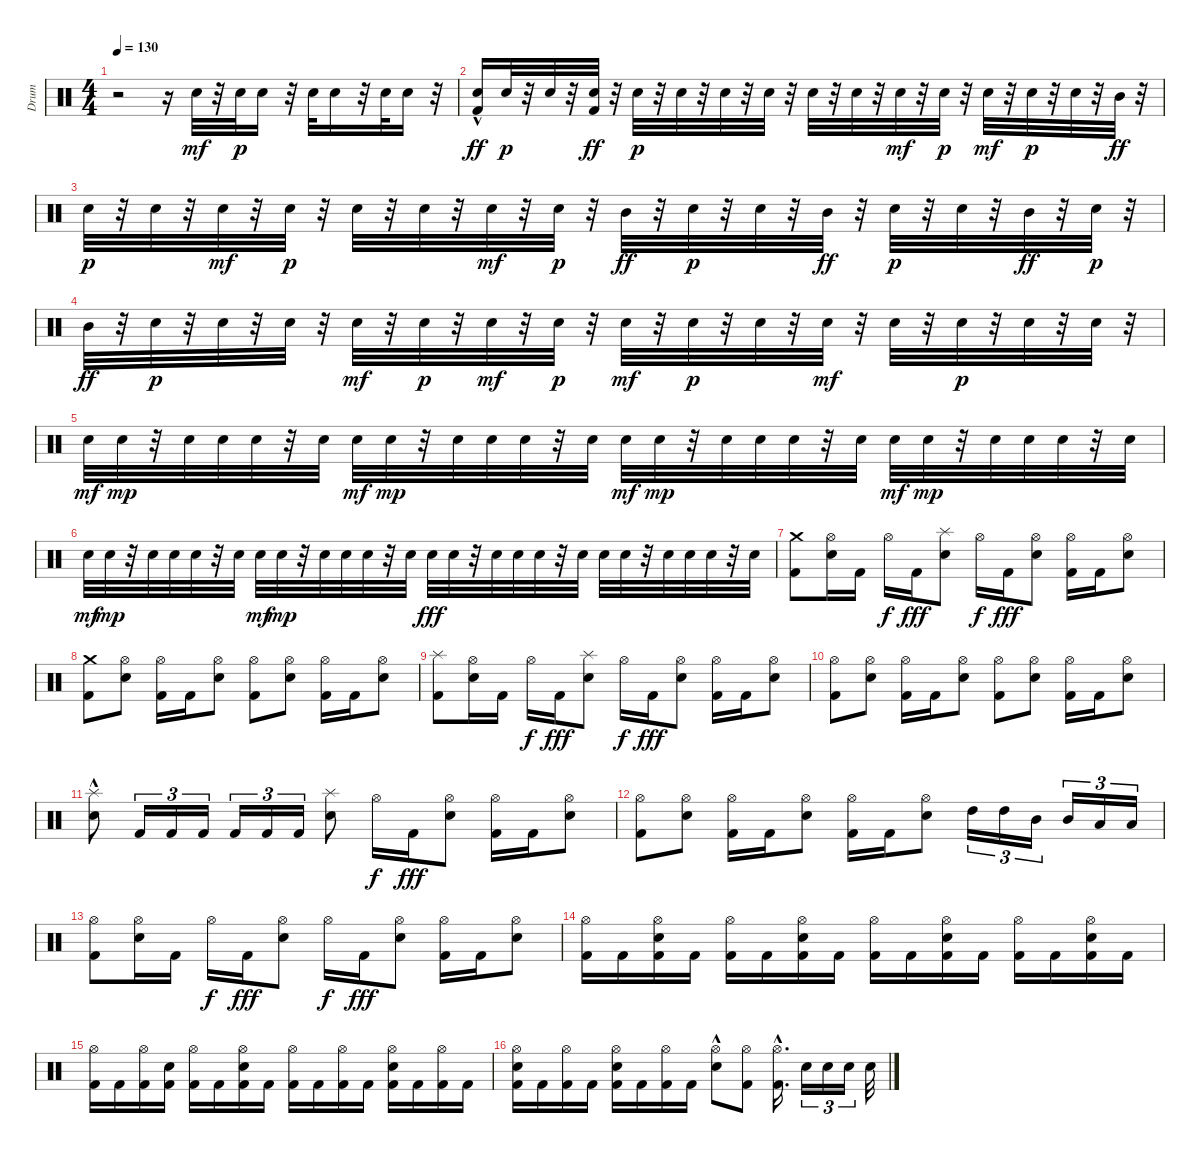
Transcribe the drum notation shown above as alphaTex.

\track ("Drum" "Drum") {instrument percussion}
\staff {score}
\articulation defaults
\ts (4 4)
\tempo 130
\clef neutral
\ks c
r.2{dy mf} r.16 "Snare (hit) 2".32 r.32 "Snare (hit) 2".32{dy p} "Snare (hit) 2".16 r.32 "Snare (hit) 2".32 "Snare (hit) 2".16 r.32 "Snare (hit) 2".32 "Snare (hit) 2".16 r.32 |
("Snare (hit) 2" "Kick (hit) 2"{hac}).16{dy ff} "Snare (hit) 2".32{dy p} r.32 "Snare (hit) 2".32 r.32 ("Snare (hit) 2" "Kick (hit) 2").32{dy ff} r.32 "Snare (hit) 2".32{dy p} r.32 "Snare (hit) 2".32 r.32 "Snare (hit) 2".32 r.32 "Snare (hit) 2".32 r.32 "Snare (hit) 2".32 r.32 "Snare (hit) 2".32 r.32 "Snare (hit) 2".32{dy mf} r.32 "Snare (hit) 2".32{dy p} r.32 "Snare (hit) 2".32{dy mf} r.32 "Snare (hit) 2".32{dy p} r.32 "Snare (hit) 2".32 r.32 "Mid Tom (hit)".32{dy ff} r.32 |
"Snare (hit) 2".32{dy p} r.32 "Snare (hit) 2".32 r.32 "Snare (hit) 2".32{dy mf} r.32 "Snare (hit) 2".32{dy p} r.32 "Snare (hit) 2".32 r.32 "Snare (hit) 2".32 r.32 "Snare (hit) 2".32{dy mf} r.32 "Snare (hit) 2".32{dy p} r.32 "Mid Tom (hit)".32{dy ff} r.32 "Snare (hit) 2".32{dy p} r.32 "Snare (hit) 2".32 r.32 "Mid Tom (hit)".32{dy ff} r.32 "Snare (hit) 2".32{dy p} r.32 "Snare (hit) 2".32 r.32 "Mid Tom (hit)".32{dy ff} r.32 "Snare (hit) 2".32{dy p} r.32 |
"Mid Tom (hit)".32{dy ff} r.32 "Snare (hit) 2".32{dy p} r.32 "Snare (hit) 2".32 r.32 "Snare (hit) 2".32 r.32 "Snare (hit) 2".32{dy mf} r.32 "Snare (hit) 2".32{dy p} r.32 "Snare (hit) 2".32{dy mf} r.32 "Snare (hit) 2".32{dy p} r.32 "Snare (hit) 2".32{dy mf} r.32 "Snare (hit) 2".32{dy p} r.32 "Snare (hit) 2".32 r.32 "Snare (hit) 2".32{dy mf} r.32 "Snare (hit) 2".32 r.32 "Snare (hit) 2".32{dy p} r.32 "Snare (hit) 2".32 r.32 "Snare (hit) 2".32 r.32 |
"Snare (hit) 2".32{dy mf} "Snare (hit) 2".32{dy mp} r.32 "Snare (hit) 2".32 "Snare (hit) 2".32 "Snare (hit) 2".32 r.32 "Snare (hit) 2".32 "Snare (hit) 2".32{dy mf} "Snare (hit) 2".32{dy mp} r.32 "Snare (hit) 2".32 "Snare (hit) 2".32 "Snare (hit) 2".32 r.32 "Snare (hit) 2".32 "Snare (hit) 2".32{dy mf} "Snare (hit) 2".32{dy mp} r.32 "Snare (hit) 2".32 "Snare (hit) 2".32 "Snare (hit) 2".32 r.32 "Snare (hit) 2".32 "Snare (hit) 2".32{dy mf} "Snare (hit) 2".32{dy mp} r.32 "Snare (hit) 2".32 "Snare (hit) 2".32 "Snare (hit) 2".32 r.32 "Snare (hit) 2".32 |
"Snare (hit) 2".32{dy mf} "Snare (hit) 2".32{dy mp} r.32 "Snare (hit) 2".32 "Snare (hit) 2".32 "Snare (hit) 2".32 r.32 "Snare (hit) 2".32 "Snare (hit) 2".32{dy mf} "Snare (hit) 2".32{dy mp} r.32 "Snare (hit) 2".32 "Snare (hit) 2".32 "Snare (hit) 2".32 r.32 "Snare (hit) 2".32 "Snare (hit) 2".32{dy fff} "Snare (hit) 2".32 r.32 "Snare (hit) 2".32 "Snare (hit) 2".32 "Snare (hit) 2".32 r.32 "Snare (hit) 2".32 "Snare (hit) 2".32 "Snare (hit) 2".32 r.32 "Snare (hit) 2".32 "Snare (hit) 2".32 "Snare (hit) 2".32 r.32 "Snare (hit) 2".32 |
("Kick (hit) 2" "Crash medium (hit)").8 ("Snare (hit) 2" "Hi-Hat (open)").16 "Kick (hit) 2".16 "Hi-Hat (open)".16{dy f} "Kick (hit) 2".16{dy fff} ("Snare (hit) 2" "Splash (hit)").8 "Hi-Hat (open)".16{dy f} "Kick (hit) 2".16{dy fff} ("Snare (hit) 2" "Hi-Hat (open)").8 ("Kick (hit) 2" "Hi-Hat (open)").16 "Kick (hit) 2".16 ("Snare (hit) 2" "Hi-Hat (open)").8 |
("Kick (hit) 2" "Crash medium (hit)").8 ("Snare (hit) 2" "Hi-Hat (open)").8 ("Kick (hit) 2" "Hi-Hat (open)").16 "Kick (hit) 2".16 ("Snare (hit) 2" "Hi-Hat (open)").8 ("Kick (hit) 2" "Hi-Hat (open)").8 ("Snare (hit) 2" "Hi-Hat (open)").8 ("Kick (hit) 2" "Hi-Hat (open)").16 "Kick (hit) 2".16 ("Snare (hit) 2" "Hi-Hat (open)").8 |
("Kick (hit) 2" "Splash (hit)").8 ("Snare (hit) 2" "Hi-Hat (open)").16 "Kick (hit) 2".16 "Hi-Hat (open)".16{dy f} "Kick (hit) 2".16{dy fff} ("Snare (hit) 2" "Splash (hit)").8 "Hi-Hat (open)".16{dy f} "Kick (hit) 2".16{dy fff} ("Snare (hit) 2" "Hi-Hat (open)").8 ("Kick (hit) 2" "Hi-Hat (open)").16 "Kick (hit) 2".16 ("Snare (hit) 2" "Hi-Hat (open)").8 |
("Kick (hit) 2" "Hi-Hat (open)").8 ("Snare (hit) 2" "Hi-Hat (open)").8 ("Kick (hit) 2" "Hi-Hat (open)").16 "Kick (hit) 2".16 ("Snare (hit) 2" "Hi-Hat (open)").8 ("Kick (hit) 2" "Hi-Hat (open)").8 ("Snare (hit) 2" "Hi-Hat (open)").8 ("Kick (hit) 2" "Hi-Hat (open)").16 "Kick (hit) 2".16 ("Snare (hit) 2" "Hi-Hat (open)").8 |
("Snare (hit) 2"{hac} "Splash (hit)").8 "Kick (hit) 2".16{tu (3 2)} "Kick (hit) 2".16{tu (3 2)} "Kick (hit) 2".16{tu (3 2)} "Kick (hit) 2".16{tu (3 2)} "Kick (hit) 2".16{tu (3 2)} "Kick (hit) 2".16{tu (3 2)} ("Snare (hit) 2" "Splash (hit)").8 "Hi-Hat (open)".16{dy f} "Kick (hit) 2".16{dy fff} ("Snare (hit) 2" "Hi-Hat (open)").8 ("Kick (hit) 2" "Hi-Hat (open)").16 "Kick (hit) 2".16 ("Snare (hit) 2" "Hi-Hat (open)").8 |
("Kick (hit) 2" "Hi-Hat (open)").8 ("Snare (hit) 2" "Hi-Hat (open)").8 ("Kick (hit) 2" "Hi-Hat (open)").16 "Kick (hit) 2".16 ("Snare (hit) 2" "Hi-Hat (open)").8 ("Kick (hit) 2" "Hi-Hat (open)").16 "Kick (hit) 2".16 ("Snare (hit) 2" "Hi-Hat (open)").8 "High Tom (hit)".16{tu (3 2)} "High Tom (hit)".16{tu (3 2)} "Mid Tom (hit)".16{tu (3 2)} "Mid Tom (hit)".16{tu (3 2)} "Low Tom (hit)".16{tu (3 2)} "Low Tom (hit)".16{tu (3 2)} |
("Kick (hit) 2" "Hi-Hat (open)").8 ("Snare (hit) 2" "Hi-Hat (open)").16 "Kick (hit) 2".16 "Hi-Hat (open)".16{dy f} "Kick (hit) 2".16{dy fff} ("Snare (hit) 2" "Hi-Hat (open)").8 "Hi-Hat (open)".16{dy f} "Kick (hit) 2".16{dy fff} ("Snare (hit) 2" "Hi-Hat (open)").8 ("Kick (hit) 2" "Hi-Hat (open)").16 "Kick (hit) 2".16 ("Snare (hit) 2" "Hi-Hat (open)").8 |
("Kick (hit) 2" "Hi-Hat (open)").16 "Kick (hit) 2".16 ("Kick (hit) 2" "Snare (hit) 2" "Hi-Hat (open)").16 "Kick (hit) 2".16 ("Kick (hit) 2" "Hi-Hat (open)").16 "Kick (hit) 2".16 ("Kick (hit) 2" "Snare (hit) 2" "Hi-Hat (open)").16 "Kick (hit) 2".16 ("Kick (hit) 2" "Hi-Hat (open)").16 "Kick (hit) 2".16 ("Kick (hit) 2" "Snare (hit) 2" "Hi-Hat (open)").16 "Kick (hit) 2".16 ("Kick (hit) 2" "Hi-Hat (open)").16 "Kick (hit) 2".16 ("Kick (hit) 2" "Snare (hit) 2" "Hi-Hat (open)").16 "Kick (hit) 2".16 |
("Kick (hit) 2" "Hi-Hat (open)").16 "Kick (hit) 2".16 ("Kick (hit) 2" "Hi-Hat (open)").16 ("Kick (hit) 2" "Snare (hit) 2").16 ("Kick (hit) 2" "Hi-Hat (open)").16 "Kick (hit) 2".16 ("Kick (hit) 2" "Snare (hit) 2" "Hi-Hat (open)").16 "Kick (hit) 2".16 ("Kick (hit) 2" "Hi-Hat (open)").16 "Kick (hit) 2".16 ("Kick (hit) 2" "Hi-Hat (open)").16 "Kick (hit) 2".16 ("Kick (hit) 2" "Snare (hit) 2" "Hi-Hat (open)").16 "Kick (hit) 2".16 ("Kick (hit) 2" "Hi-Hat (open)").16 "Kick (hit) 2".16 |
("Kick (hit) 2" "Snare (hit) 2" "Hi-Hat (open)").16 "Kick (hit) 2".16 ("Kick (hit) 2" "Hi-Hat (open)").16 "Kick (hit) 2".16 ("Kick (hit) 2" "Snare (hit) 2" "Hi-Hat (open)").16 "Kick (hit) 2".16 ("Kick (hit) 2" "Hi-Hat (open)").16 "Kick (hit) 2".16 ("Snare (hit) 2"{hac} "Hi-Hat (open)").8 ("Kick (hit) 2" "Hi-Hat (open)").8 ("Kick (hit) 2"{hac} "Hi-Hat (open)"{hac}).16{d} "Snare (hit) 2".16{tu (3 2)} "Snare (hit) 2".16{tu (3 2)} "Snare (hit) 2".16{tu (3 2)} "Snare (hit) 2".32
